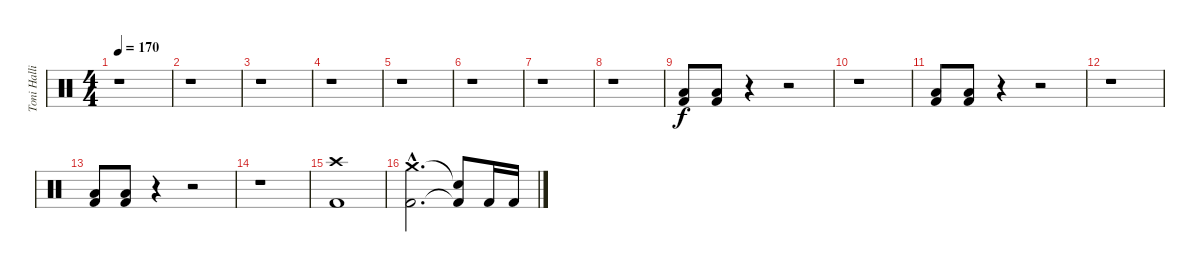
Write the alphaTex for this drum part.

\track ("Toni Hallio" "Toni Halli") {instrument percussion}
\staff {score}
\articulation defaults
\ts (4 4)
\tempo 170
\clef neutral
\ks c
r.1{dy f} |
r.1 |
r.1 |
r.1 |
r.1 |
r.1 |
r.1 |
r.1 |
("Low Floor Tom (hit)" "Kick (hit) 2").8 ("Low Floor Tom (hit)" "Kick (hit) 2").8 r.4 r.2 |
r.1 |
("Low Floor Tom (hit)" "Kick (hit) 2").8 ("Low Floor Tom (hit)" "Kick (hit) 2").8 r.4 r.2 |
r.1 |
("Low Floor Tom (hit)" "Kick (hit) 2").8 ("Low Floor Tom (hit)" "Kick (hit) 2").8 r.4 r.2 |
r.1 |
("Crash high (hit)" "Kick (hit) 2").1 |
("Crash medium (hit)"{hac} "Kick (hit) 2"{hac}).2{d} ("Snare (hit)"{t} "Kick (hit) 2"{t}).8 "Kick (hit) 2".16 "Kick (hit) 2".16
